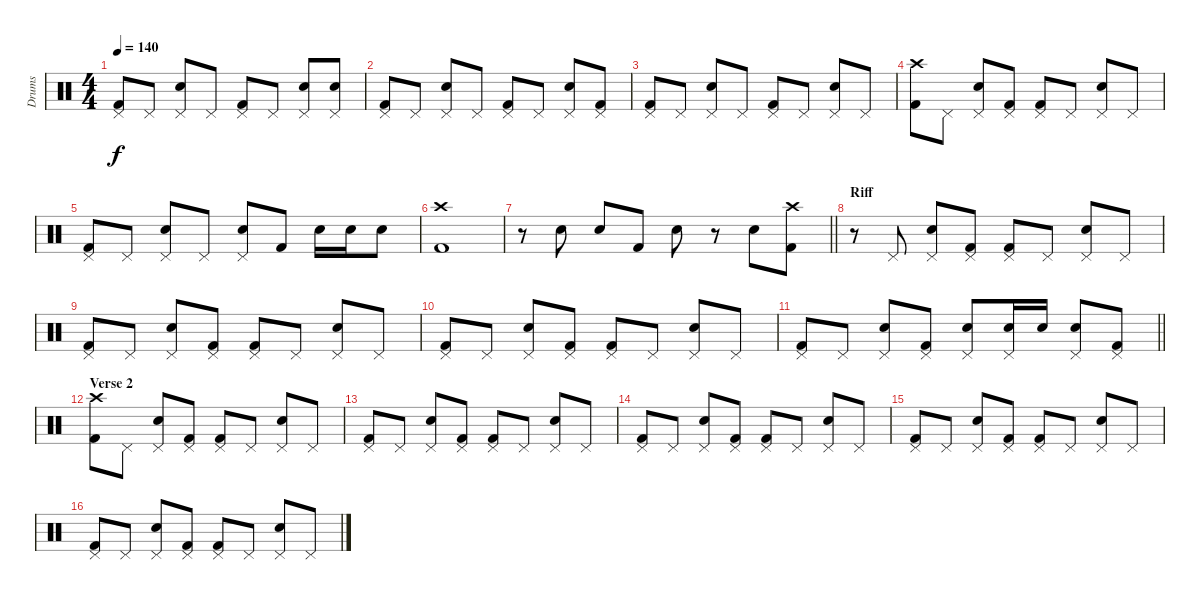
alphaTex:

\track ("Drums" "Drums") {instrument percussion}
\staff {score}
\articulation defaults
\ts (4 4)
\tempo 140
\clef neutral
\ks c
("Pedal Hi-Hat (hit)" "Kick (hit) 2").8{dy f} "Pedal Hi-Hat (hit)".8 ("Pedal Hi-Hat (hit)" "Electric Snare (hit)").8 "Pedal Hi-Hat (hit)".8 ("Pedal Hi-Hat (hit)" "Kick (hit) 2").8 "Pedal Hi-Hat (hit)".8 ("Pedal Hi-Hat (hit)" "Electric Snare (hit)").8 ("Pedal Hi-Hat (hit)" "Electric Snare (hit)").8 |
("Pedal Hi-Hat (hit)" "Kick (hit) 2").8 "Pedal Hi-Hat (hit)".8 ("Pedal Hi-Hat (hit)" "Electric Snare (hit)").8 "Pedal Hi-Hat (hit)".8 ("Pedal Hi-Hat (hit)" "Kick (hit) 2").8 "Pedal Hi-Hat (hit)".8 ("Pedal Hi-Hat (hit)" "Electric Snare (hit)").8 ("Pedal Hi-Hat (hit)" "Kick (hit) 2").8 |
("Pedal Hi-Hat (hit)" "Kick (hit) 2").8 "Pedal Hi-Hat (hit)".8 ("Pedal Hi-Hat (hit)" "Electric Snare (hit)").8 "Pedal Hi-Hat (hit)".8 ("Pedal Hi-Hat (hit)" "Kick (hit) 2").8 "Pedal Hi-Hat (hit)".8 ("Pedal Hi-Hat (hit)" "Electric Snare (hit)").8 "Pedal Hi-Hat (hit)".8 |
("Crash high (hit)" "Kick (hit) 2").8 "Pedal Hi-Hat (hit)".8 ("Pedal Hi-Hat (hit)" "Electric Snare (hit)").8 ("Pedal Hi-Hat (hit)" "Kick (hit) 2").8 ("Pedal Hi-Hat (hit)" "Kick (hit) 2").8 "Pedal Hi-Hat (hit)".8 ("Pedal Hi-Hat (hit)" "Electric Snare (hit)").8 "Pedal Hi-Hat (hit)".8 |
("Pedal Hi-Hat (hit)" "Kick (hit) 2").8 "Pedal Hi-Hat (hit)".8 ("Pedal Hi-Hat (hit)" "Electric Snare (hit)").8 "Pedal Hi-Hat (hit)".8 ("Pedal Hi-Hat (hit)" "Electric Snare (hit)").8 "Kick (hit) 2".8 "Electric Snare (hit)".16 "Electric Snare (hit)".16 "Electric Snare (hit)".8 |
("Crash high (hit)" "Kick (hit) 2").1 |
\barLineRight lightlight
r.8 "Electric Snare (hit)".8 "Electric Snare (hit)".8 "Kick (hit) 2".8 "Electric Snare (hit)".8 r.8 "Electric Snare (hit)".8 ("Crash high (hit)" "Kick (hit) 2").8 |
\section ("" "Riff")
r.8 "Pedal Hi-Hat (hit)".8 ("Pedal Hi-Hat (hit)" "Electric Snare (hit)").8 ("Pedal Hi-Hat (hit)" "Kick (hit) 2").8 ("Pedal Hi-Hat (hit)" "Kick (hit) 2").8 "Pedal Hi-Hat (hit)".8 ("Pedal Hi-Hat (hit)" "Electric Snare (hit)").8 "Pedal Hi-Hat (hit)".8 |
("Pedal Hi-Hat (hit)" "Kick (hit) 2").8 "Pedal Hi-Hat (hit)".8 ("Pedal Hi-Hat (hit)" "Electric Snare (hit)").8 ("Pedal Hi-Hat (hit)" "Kick (hit) 2").8 ("Pedal Hi-Hat (hit)" "Kick (hit) 2").8 "Pedal Hi-Hat (hit)".8 ("Pedal Hi-Hat (hit)" "Electric Snare (hit)").8 "Pedal Hi-Hat (hit)".8 |
("Pedal Hi-Hat (hit)" "Kick (hit) 2").8 "Pedal Hi-Hat (hit)".8 ("Pedal Hi-Hat (hit)" "Electric Snare (hit)").8 ("Pedal Hi-Hat (hit)" "Kick (hit) 2").8 ("Pedal Hi-Hat (hit)" "Kick (hit) 2").8 "Pedal Hi-Hat (hit)".8 ("Pedal Hi-Hat (hit)" "Electric Snare (hit)").8 "Pedal Hi-Hat (hit)".8 |
\barLineRight lightlight
("Pedal Hi-Hat (hit)" "Kick (hit) 2").8 "Pedal Hi-Hat (hit)".8 ("Pedal Hi-Hat (hit)" "Electric Snare (hit)").8 ("Pedal Hi-Hat (hit)" "Kick (hit) 2").8 ("Pedal Hi-Hat (hit)" "Electric Snare (hit)").8 ("Pedal Hi-Hat (hit)" "Electric Snare (hit)").16 "Electric Snare (hit)".16 ("Pedal Hi-Hat (hit)" "Electric Snare (hit)").8 ("Pedal Hi-Hat (hit)" "Kick (hit) 2").8 |
\section ("" "Verse 2")
("Crash high (hit)" "Kick (hit) 2").8 "Pedal Hi-Hat (hit)".8 ("Pedal Hi-Hat (hit)" "Electric Snare (hit)").8 ("Pedal Hi-Hat (hit)" "Kick (hit) 2").8 ("Pedal Hi-Hat (hit)" "Kick (hit) 2").8 "Pedal Hi-Hat (hit)".8 ("Pedal Hi-Hat (hit)" "Electric Snare (hit)").8 "Pedal Hi-Hat (hit)".8 |
("Pedal Hi-Hat (hit)" "Kick (hit) 2").8 "Pedal Hi-Hat (hit)".8 ("Pedal Hi-Hat (hit)" "Electric Snare (hit)").8 ("Pedal Hi-Hat (hit)" "Kick (hit) 2").8 ("Pedal Hi-Hat (hit)" "Kick (hit) 2").8 "Pedal Hi-Hat (hit)".8 ("Pedal Hi-Hat (hit)" "Electric Snare (hit)").8 "Pedal Hi-Hat (hit)".8 |
("Pedal Hi-Hat (hit)" "Kick (hit) 2").8 "Pedal Hi-Hat (hit)".8 ("Pedal Hi-Hat (hit)" "Electric Snare (hit)").8 ("Pedal Hi-Hat (hit)" "Kick (hit) 2").8 ("Pedal Hi-Hat (hit)" "Kick (hit) 2").8 "Pedal Hi-Hat (hit)".8 ("Pedal Hi-Hat (hit)" "Electric Snare (hit)").8 "Pedal Hi-Hat (hit)".8 |
("Pedal Hi-Hat (hit)" "Kick (hit) 2").8 "Pedal Hi-Hat (hit)".8 ("Pedal Hi-Hat (hit)" "Electric Snare (hit)").8 ("Pedal Hi-Hat (hit)" "Kick (hit) 2").8 ("Pedal Hi-Hat (hit)" "Kick (hit) 2").8 "Pedal Hi-Hat (hit)".8 ("Pedal Hi-Hat (hit)" "Electric Snare (hit)").8 "Pedal Hi-Hat (hit)".8 |
("Pedal Hi-Hat (hit)" "Kick (hit) 2").8 "Pedal Hi-Hat (hit)".8 ("Pedal Hi-Hat (hit)" "Electric Snare (hit)").8 ("Pedal Hi-Hat (hit)" "Kick (hit) 2").8 ("Pedal Hi-Hat (hit)" "Kick (hit) 2").8 "Pedal Hi-Hat (hit)".8 ("Pedal Hi-Hat (hit)" "Electric Snare (hit)").8 "Pedal Hi-Hat (hit)".8
